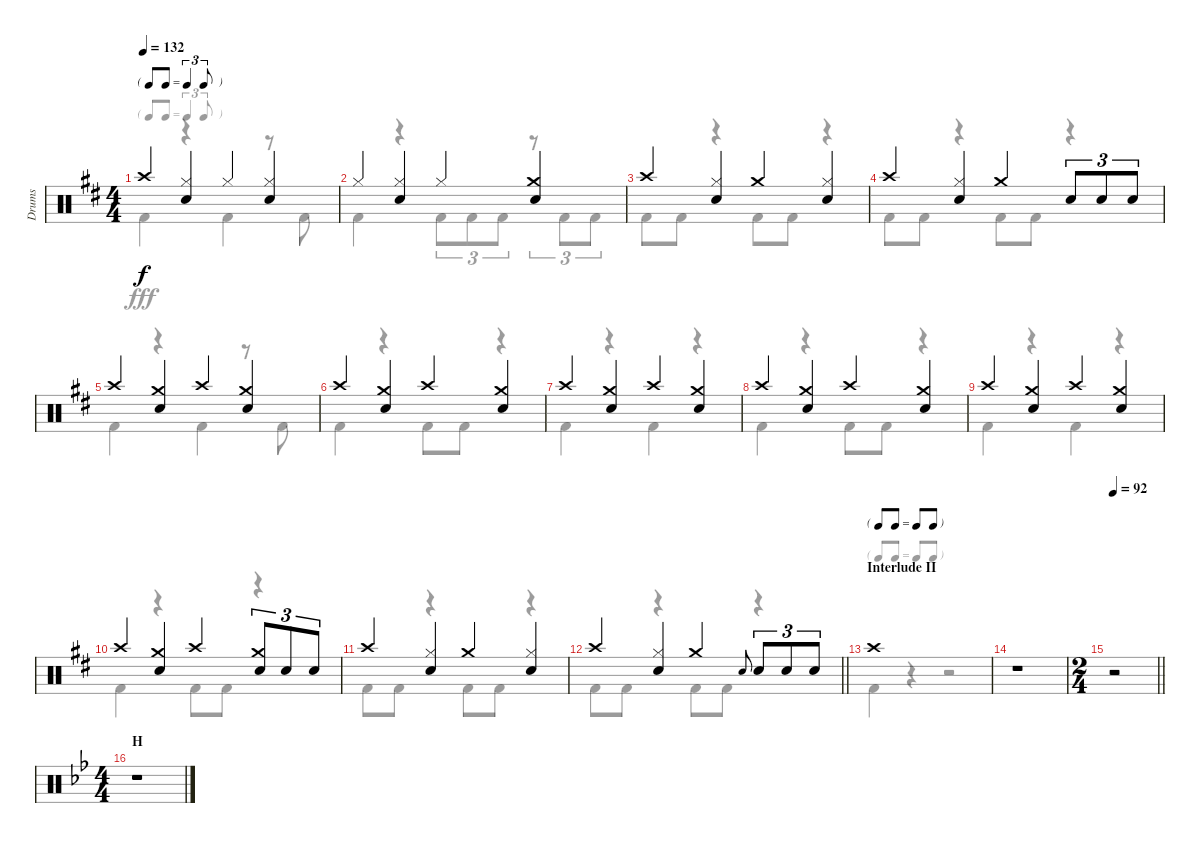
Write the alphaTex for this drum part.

\track ("Drums" "Drums") {instrument percussion}
\staff {score}
\articulation defaults
\voice
\ts (4 4)
\tf triplet8th
\tempo 132
\clef neutral
\ks d "Crash high (hit)".4{dy f}
("Hi-Hat (closed)" "Snare (hit) 2").4 "Hi-Hat (closed)".4 ("Hi-Hat (closed)" "Snare (hit) 2").4 |
"Hi-Hat (closed)".4 ("Hi-Hat (closed)" "Snare (hit) 2").4 "Hi-Hat (closed)".4 ("Crash medium (hit)" "Snare (hit) 2").4 |
"Crash high (hit)".4 ("Hi-Hat (closed)" "Snare (hit) 2").4 "Crash medium (hit)".4 ("Hi-Hat (closed)" "Snare (hit) 2").4 |
"Crash high (hit)".4 ("Hi-Hat (closed)" "Snare (hit) 2").4 "Crash medium (hit)".4 "Snare (hit) 2".8{tu (3 2)} "Snare (hit) 2".8{tu (3 2)} "Snare (hit) 2".8{tu (3 2)} |
"Crash high (hit)".4 ("Crash medium (hit)" "Snare (hit) 2").4 "Crash high (hit)".4 ("Crash medium (hit)" "Snare (hit) 2").4 |
"Crash high (hit)".4 ("Crash medium (hit)" "Snare (hit) 2").4 "Crash high (hit)".4 ("Crash medium (hit)" "Snare (hit) 2").4 |
"Crash high (hit)".4 ("Crash medium (hit)" "Snare (hit) 2").4 "Crash high (hit)".4 ("Crash medium (hit)" "Snare (hit) 2").4 |
"Crash high (hit)".4 ("Crash medium (hit)" "Snare (hit) 2").4 "Crash high (hit)".4 ("Crash medium (hit)" "Snare (hit) 2").4 |
"Crash high (hit)".4 ("Crash medium (hit)" "Snare (hit) 2").4 "Crash high (hit)".4 ("Crash medium (hit)" "Snare (hit) 2").4 |
"Crash high (hit)".4 ("Crash medium (hit)" "Snare (hit) 2").4 "Crash high (hit)".4 ("Crash medium (hit)" "Snare (hit) 2").8{tu (3 2)} "Snare (hit) 2".8{tu (3 2)} "Snare (hit) 2".8{tu (3 2)} |
"Crash high (hit)".4 ("Hi-Hat (closed)" "Snare (hit) 2").4 "Crash medium (hit)".4 ("Hi-Hat (closed)" "Snare (hit) 2").4 |
\barLineRight lightlight "Crash high (hit)".4
("Hi-Hat (closed)" "Snare (hit) 2").4 "Crash medium (hit)".4 "Snare (hit) 2".8{gr onbeat} "Snare (hit) 2".8{tu (3 2)} "Snare (hit) 2".8{tu (3 2)} "Snare (hit) 2".8{tu (3 2)} |
\tf none
\section ("" "Interlude II")
"Crash high (hit)".1 |
r.1 |
\ts (2 4)
\tempo 92
\barLineRight lightlight
r.2 |
\ts (4 4)
\section ("" "H")
\ks bb
r.1
\voice
\clef neutral
\ottava regular
\simile none
\ks d "Kick (hit) 2".4{dy fff}
r.4 "Kick (hit) 2".4 r.8 "Kick (hit) 2".8 |
"Kick (hit) 2".4 r.4 "Kick (hit) 2".8{tu (3 2)} "Kick (hit) 2".8{tu (3 2)} "Kick (hit) 2".8{tu (3 2)} r.8{tu (3 2)} "Kick (hit) 2".8{tu (3 2)} "Kick (hit) 2".8{tu (3 2)} |
"Kick (hit) 2".8 "Kick (hit) 2".8 r.4 "Kick (hit) 2".8 "Kick (hit) 2".8 r.4 |
"Kick (hit) 2".8 "Kick (hit) 2".8 r.4 "Kick (hit) 2".8 "Kick (hit) 2".8 r.4 |
"Kick (hit) 2".4 r.4 "Kick (hit) 2".4 r.8 "Kick (hit) 2".8 |
"Kick (hit) 2".4 r.4 "Kick (hit) 2".8 "Kick (hit) 2".8 r.4 |
"Kick (hit) 2".4 r.4 "Kick (hit) 2".4 r.4 |
"Kick (hit) 2".4 r.4 "Kick (hit) 2".8 "Kick (hit) 2".8 r.4 |
"Kick (hit) 2".4 r.4 "Kick (hit) 2".4 r.4 |
"Kick (hit) 2".4 r.4 "Kick (hit) 2".8 "Kick (hit) 2".8 r.4 |
"Kick (hit) 2".8 "Kick (hit) 2".8 r.4 "Kick (hit) 2".8 "Kick (hit) 2".8 r.4 |
\barLineRight lightlight "Kick (hit) 2".8 "Kick (hit) 2".8
r.4 "Kick (hit) 2".8 "Kick (hit) 2".8 r.4 |
"Kick (hit) 2".4 r.4 r.2 |
r.1 |
\barLineRight lightlight
r.2 |
\ks bb
r.1
